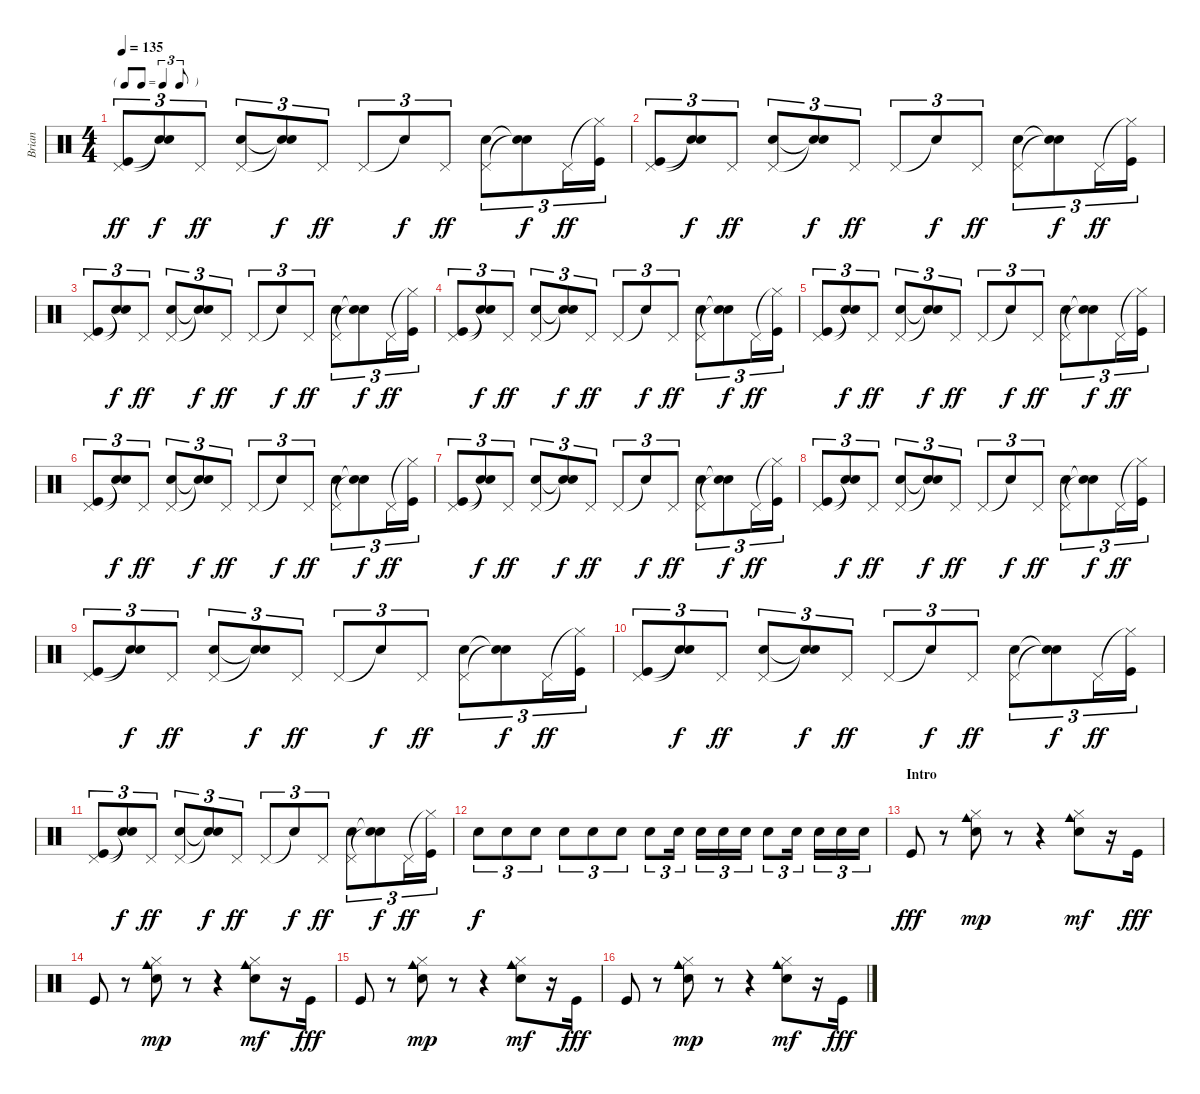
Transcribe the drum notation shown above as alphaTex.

\track ("Brian" "Brian") {instrument percussion}
\staff {score}
\articulation defaults
\ts (4 4)
\tf triplet8th
\tempo 135
\clef neutral
\ks c
("Pedal Hi-Hat (hit)" "Kick (hit)").8{tu (3 2) dy ff} ("Snare (hit)"{t} "Snare (hit)"{t}).8{tu (3 2) dy f} "Pedal Hi-Hat (hit)".8{tu (3 2) dy ff} ("Pedal Hi-Hat (hit)" "Snare (hit) 2").8{tu (3 2)} ("Snare (hit)"{t} "Snare (hit)"{t}).8{tu (3 2) dy f} "Pedal Hi-Hat (hit)".8{tu (3 2) dy ff} "Pedal Hi-Hat (hit)".8{tu (3 2)} "Snare (hit)"{t}.8{tu (3 2) dy f} "Pedal Hi-Hat (hit)".8{tu (3 2) dy ff} ("Pedal Hi-Hat (hit)" "Snare (hit) 2").8{tu (3 2)} ("Snare (hit)"{t} "Snare (hit)"{t}).8{tu (3 2) dy f} "Pedal Hi-Hat (hit)".16{tu (3 2) dy ff} ("Hi-Hat (closed)"{t} "Kick (hit)").16{tu (3 2)} |
("Pedal Hi-Hat (hit)" "Kick (hit)").8{tu (3 2)} ("Snare (hit)"{t} "Snare (hit)"{t}).8{tu (3 2) dy f} "Pedal Hi-Hat (hit)".8{tu (3 2) dy ff} ("Pedal Hi-Hat (hit)" "Snare (hit) 2").8{tu (3 2)} ("Snare (hit)"{t} "Snare (hit)"{t}).8{tu (3 2) dy f} "Pedal Hi-Hat (hit)".8{tu (3 2) dy ff} "Pedal Hi-Hat (hit)".8{tu (3 2)} "Snare (hit)"{t}.8{tu (3 2) dy f} "Pedal Hi-Hat (hit)".8{tu (3 2) dy ff} ("Pedal Hi-Hat (hit)" "Snare (hit) 2").8{tu (3 2)} ("Snare (hit)"{t} "Snare (hit)"{t}).8{tu (3 2) dy f} "Pedal Hi-Hat (hit)".16{tu (3 2) dy ff} ("Hi-Hat (closed)"{t} "Kick (hit)").16{tu (3 2)} |
("Pedal Hi-Hat (hit)" "Kick (hit)").8{tu (3 2)} ("Snare (hit)"{t} "Snare (hit)"{t}).8{tu (3 2) dy f} "Pedal Hi-Hat (hit)".8{tu (3 2) dy ff} ("Pedal Hi-Hat (hit)" "Snare (hit) 2").8{tu (3 2)} ("Snare (hit)"{t} "Snare (hit)"{t}).8{tu (3 2) dy f} "Pedal Hi-Hat (hit)".8{tu (3 2) dy ff} "Pedal Hi-Hat (hit)".8{tu (3 2)} "Snare (hit)"{t}.8{tu (3 2) dy f} "Pedal Hi-Hat (hit)".8{tu (3 2) dy ff} ("Pedal Hi-Hat (hit)" "Snare (hit) 2").8{tu (3 2)} ("Snare (hit)"{t} "Snare (hit)"{t}).8{tu (3 2) dy f} "Pedal Hi-Hat (hit)".16{tu (3 2) dy ff} ("Hi-Hat (closed)"{t} "Kick (hit)").16{tu (3 2)} |
("Pedal Hi-Hat (hit)" "Kick (hit)").8{tu (3 2)} ("Snare (hit)"{t} "Snare (hit)"{t}).8{tu (3 2) dy f} "Pedal Hi-Hat (hit)".8{tu (3 2) dy ff} ("Pedal Hi-Hat (hit)" "Snare (hit) 2").8{tu (3 2)} ("Snare (hit)"{t} "Snare (hit)"{t}).8{tu (3 2) dy f} "Pedal Hi-Hat (hit)".8{tu (3 2) dy ff} "Pedal Hi-Hat (hit)".8{tu (3 2)} "Snare (hit)"{t}.8{tu (3 2) dy f} "Pedal Hi-Hat (hit)".8{tu (3 2) dy ff} ("Pedal Hi-Hat (hit)" "Snare (hit) 2").8{tu (3 2)} ("Snare (hit)"{t} "Snare (hit)"{t}).8{tu (3 2) dy f} "Pedal Hi-Hat (hit)".16{tu (3 2) dy ff} ("Hi-Hat (closed)"{t} "Kick (hit)").16{tu (3 2)} |
("Pedal Hi-Hat (hit)" "Kick (hit)").8{tu (3 2)} ("Snare (hit)"{t} "Snare (hit)"{t}).8{tu (3 2) dy f} "Pedal Hi-Hat (hit)".8{tu (3 2) dy ff} ("Pedal Hi-Hat (hit)" "Snare (hit) 2").8{tu (3 2)} ("Snare (hit)"{t} "Snare (hit)"{t}).8{tu (3 2) dy f} "Pedal Hi-Hat (hit)".8{tu (3 2) dy ff} "Pedal Hi-Hat (hit)".8{tu (3 2)} "Snare (hit)"{t}.8{tu (3 2) dy f} "Pedal Hi-Hat (hit)".8{tu (3 2) dy ff} ("Pedal Hi-Hat (hit)" "Snare (hit) 2").8{tu (3 2)} ("Snare (hit)"{t} "Snare (hit)"{t}).8{tu (3 2) dy f} "Pedal Hi-Hat (hit)".16{tu (3 2) dy ff} ("Hi-Hat (closed)"{t} "Kick (hit)").16{tu (3 2)} |
("Pedal Hi-Hat (hit)" "Kick (hit)").8{tu (3 2)} ("Snare (hit)"{t} "Snare (hit)"{t}).8{tu (3 2) dy f} "Pedal Hi-Hat (hit)".8{tu (3 2) dy ff} ("Pedal Hi-Hat (hit)" "Snare (hit) 2").8{tu (3 2)} ("Snare (hit)"{t} "Snare (hit)"{t}).8{tu (3 2) dy f} "Pedal Hi-Hat (hit)".8{tu (3 2) dy ff} "Pedal Hi-Hat (hit)".8{tu (3 2)} "Snare (hit)"{t}.8{tu (3 2) dy f} "Pedal Hi-Hat (hit)".8{tu (3 2) dy ff} ("Pedal Hi-Hat (hit)" "Snare (hit) 2").8{tu (3 2)} ("Snare (hit)"{t} "Snare (hit)"{t}).8{tu (3 2) dy f} "Pedal Hi-Hat (hit)".16{tu (3 2) dy ff} ("Hi-Hat (closed)"{t} "Kick (hit)").16{tu (3 2)} |
("Pedal Hi-Hat (hit)" "Kick (hit)").8{tu (3 2)} ("Snare (hit)"{t} "Snare (hit)"{t}).8{tu (3 2) dy f} "Pedal Hi-Hat (hit)".8{tu (3 2) dy ff} ("Pedal Hi-Hat (hit)" "Snare (hit) 2").8{tu (3 2)} ("Snare (hit)"{t} "Snare (hit)"{t}).8{tu (3 2) dy f} "Pedal Hi-Hat (hit)".8{tu (3 2) dy ff} "Pedal Hi-Hat (hit)".8{tu (3 2)} "Snare (hit)"{t}.8{tu (3 2) dy f} "Pedal Hi-Hat (hit)".8{tu (3 2) dy ff} ("Pedal Hi-Hat (hit)" "Snare (hit) 2").8{tu (3 2)} ("Snare (hit)"{t} "Snare (hit)"{t}).8{tu (3 2) dy f} "Pedal Hi-Hat (hit)".16{tu (3 2) dy ff} ("Hi-Hat (closed)"{t} "Kick (hit)").16{tu (3 2)} |
("Pedal Hi-Hat (hit)" "Kick (hit)").8{tu (3 2)} ("Snare (hit)"{t} "Snare (hit)"{t}).8{tu (3 2) dy f} "Pedal Hi-Hat (hit)".8{tu (3 2) dy ff} ("Pedal Hi-Hat (hit)" "Snare (hit) 2").8{tu (3 2)} ("Snare (hit)"{t} "Snare (hit)"{t}).8{tu (3 2) dy f} "Pedal Hi-Hat (hit)".8{tu (3 2) dy ff} "Pedal Hi-Hat (hit)".8{tu (3 2)} "Snare (hit)"{t}.8{tu (3 2) dy f} "Pedal Hi-Hat (hit)".8{tu (3 2) dy ff} ("Pedal Hi-Hat (hit)" "Snare (hit) 2").8{tu (3 2)} ("Snare (hit)"{t} "Snare (hit)"{t}).8{tu (3 2) dy f} "Pedal Hi-Hat (hit)".16{tu (3 2) dy ff} ("Hi-Hat (closed)"{t} "Kick (hit)").16{tu (3 2)} |
("Pedal Hi-Hat (hit)" "Kick (hit)").8{tu (3 2)} ("Snare (hit)"{t} "Snare (hit)"{t}).8{tu (3 2) dy f} "Pedal Hi-Hat (hit)".8{tu (3 2) dy ff} ("Pedal Hi-Hat (hit)" "Snare (hit) 2").8{tu (3 2)} ("Snare (hit)"{t} "Snare (hit)"{t}).8{tu (3 2) dy f} "Pedal Hi-Hat (hit)".8{tu (3 2) dy ff} "Pedal Hi-Hat (hit)".8{tu (3 2)} "Snare (hit)"{t}.8{tu (3 2) dy f} "Pedal Hi-Hat (hit)".8{tu (3 2) dy ff} ("Pedal Hi-Hat (hit)" "Snare (hit) 2").8{tu (3 2)} ("Snare (hit)"{t} "Snare (hit)"{t}).8{tu (3 2) dy f} "Pedal Hi-Hat (hit)".16{tu (3 2) dy ff} ("Hi-Hat (closed)"{t} "Kick (hit)").16{tu (3 2)} |
("Pedal Hi-Hat (hit)" "Kick (hit)").8{tu (3 2)} ("Snare (hit)"{t} "Snare (hit)"{t}).8{tu (3 2) dy f} "Pedal Hi-Hat (hit)".8{tu (3 2) dy ff} ("Pedal Hi-Hat (hit)" "Snare (hit) 2").8{tu (3 2)} ("Snare (hit)"{t} "Snare (hit)"{t}).8{tu (3 2) dy f} "Pedal Hi-Hat (hit)".8{tu (3 2) dy ff} "Pedal Hi-Hat (hit)".8{tu (3 2)} "Snare (hit)"{t}.8{tu (3 2) dy f} "Pedal Hi-Hat (hit)".8{tu (3 2) dy ff} ("Pedal Hi-Hat (hit)" "Snare (hit) 2").8{tu (3 2)} ("Snare (hit)"{t} "Snare (hit)"{t}).8{tu (3 2) dy f} "Pedal Hi-Hat (hit)".16{tu (3 2) dy ff} ("Hi-Hat (closed)"{t} "Kick (hit)").16{tu (3 2)} |
("Pedal Hi-Hat (hit)" "Kick (hit)").8{tu (3 2)} ("Snare (hit)"{t} "Snare (hit)"{t}).8{tu (3 2) dy f} "Pedal Hi-Hat (hit)".8{tu (3 2) dy ff} ("Pedal Hi-Hat (hit)" "Snare (hit) 2").8{tu (3 2)} ("Snare (hit)"{t} "Snare (hit)"{t}).8{tu (3 2) dy f} "Pedal Hi-Hat (hit)".8{tu (3 2) dy ff} "Pedal Hi-Hat (hit)".8{tu (3 2)} "Snare (hit)"{t}.8{tu (3 2) dy f} "Pedal Hi-Hat (hit)".8{tu (3 2) dy ff} ("Pedal Hi-Hat (hit)" "Snare (hit) 2").8{tu (3 2)} ("Snare (hit)"{t} "Snare (hit)"{t}).8{tu (3 2) dy f} "Pedal Hi-Hat (hit)".16{tu (3 2) dy ff} ("Hi-Hat (closed)"{t} "Kick (hit)").16{tu (3 2)} |
"Snare (hit) 2".8{tu (3 2) dy f} "Snare (hit) 2".8{tu (3 2)} "Snare (hit) 2".8{tu (3 2)} "Snare (hit) 2".8{tu (3 2)} "Snare (hit) 2".8{tu (3 2)} "Snare (hit) 2".8{tu (3 2)} "Snare (hit) 2".8{tu (3 2)} "Snare (hit) 2".16{tu (3 2)} "Snare (hit) 2".16{tu (3 2)} "Snare (hit) 2".16{tu (3 2)} "Snare (hit) 2".16{tu (3 2)} "Snare (hit) 2".8{tu (3 2)} "Snare (hit) 2".16{tu (3 2)} "Snare (hit) 2".16{tu (3 2)} "Snare (hit) 2".16{tu (3 2)} "Snare (hit) 2".16{tu (3 2)} |
\section ("" "Intro")
"Kick (hit)".8{dy fff} r.8 ("Cowbell medium (hit)" "Hi-Hat (closed)" "Snare (hit) 2").8{dy mp} r.8 r.4 ("Cowbell medium (hit)" "Hi-Hat (closed)" "Snare (hit) 2").8{dy mf} r.16 "Kick (hit)".16{dy fff} |
"Kick (hit)".8 r.8 ("Cowbell medium (hit)" "Hi-Hat (closed)" "Snare (hit) 2").8{dy mp} r.8 r.4 ("Cowbell medium (hit)" "Hi-Hat (closed)" "Snare (hit) 2").8{dy mf} r.16 "Kick (hit)".16{dy fff} |
"Kick (hit)".8 r.8 ("Cowbell medium (hit)" "Hi-Hat (closed)" "Snare (hit) 2").8{dy mp} r.8 r.4 ("Cowbell medium (hit)" "Hi-Hat (closed)" "Snare (hit) 2").8{dy mf} r.16 "Kick (hit)".16{dy fff} |
"Kick (hit)".8 r.8 ("Cowbell medium (hit)" "Hi-Hat (closed)" "Snare (hit) 2").8{dy mp} r.8 r.4 ("Cowbell medium (hit)" "Hi-Hat (closed)" "Snare (hit) 2").8{dy mf} r.16 "Kick (hit)".16{dy fff}
